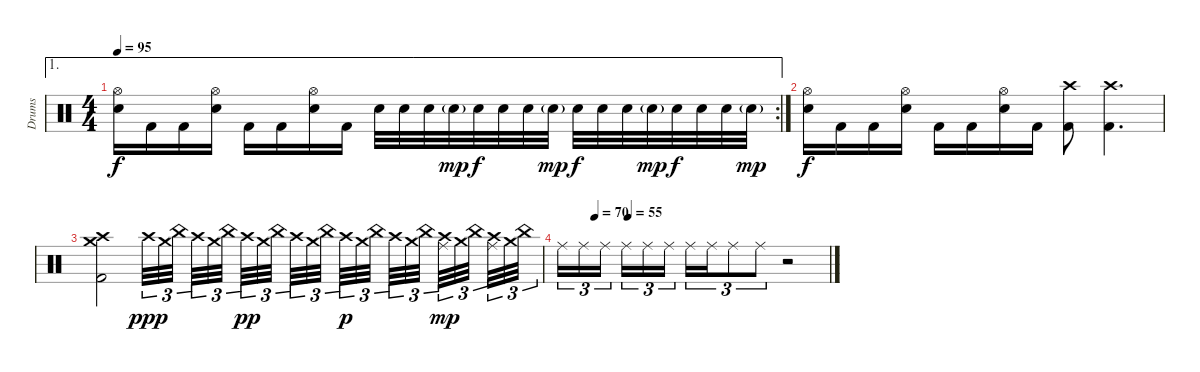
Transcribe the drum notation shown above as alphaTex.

\track ("Drums" "Drums") {instrument percussion}
\staff {score}
\articulation defaults
\ae 1
\rc 2
\ts (4 4)
\tempo 95
\clef neutral
\ks c
("Hi-Hat (open)" "Electric Snare (hit)").16{dy f} "Kick (hit) 2".16 "Kick (hit) 2".16 ("Hi-Hat (open)" "Electric Snare (hit)").16 "Kick (hit) 2".16 "Kick (hit) 2".16 ("Hi-Hat (open)" "Electric Snare (hit)").16 "Kick (hit) 2".16 "Electric Snare (hit)".32 "Electric Snare (hit)".32 "Electric Snare (hit)".32 "Electric Snare (hit)"{g}.32{dy mp} "Electric Snare (hit)".32{dy f} "Electric Snare (hit)".32 "Electric Snare (hit)".32 "Electric Snare (hit)"{g}.32{dy mp} "Electric Snare (hit)".32{dy f} "Electric Snare (hit)".32 "Electric Snare (hit)".32 "Electric Snare (hit)"{g}.32{dy mp} "Electric Snare (hit)".32{dy f} "Electric Snare (hit)".32 "Electric Snare (hit)".32 "Electric Snare (hit)"{g}.32{dy mp} |
("Hi-Hat (open)" "Electric Snare (hit)").16{dy f} "Kick (hit) 2".16 "Kick (hit) 2".16 ("Hi-Hat (open)" "Electric Snare (hit)").16 "Kick (hit) 2".16 "Kick (hit) 2".16 ("Hi-Hat (open)" "Electric Snare (hit)").16 "Kick (hit) 2".16 ("Crash high (hit)" "Kick (hit) 2").8 ("Crash high (hit)" "Kick (hit) 2").4{d} |
("Crash high (hit)" "Crash medium (hit)" "Kick (hit) 2").2 "Crash high (hit)".32{tu (3 2) dy ppp} "Crash medium (hit)".32{tu (3 2)} "China (hit)".32{tu (3 2)} "Crash high (hit)".32{tu (3 2)} "Crash medium (hit)".32{tu (3 2)} "China (hit)".32{tu (3 2)} "Crash high (hit)".32{tu (3 2) dy pp} "Crash medium (hit)".32{tu (3 2)} "China (hit)".32{tu (3 2)} "Crash high (hit)".32{tu (3 2)} "Crash medium (hit)".32{tu (3 2)} "China (hit)".32{tu (3 2)} "Crash high (hit)".32{tu (3 2) dy p} "Crash medium (hit)".32{tu (3 2)} "China (hit)".32{tu (3 2)} "Crash high (hit)".32{tu (3 2)} "Crash medium (hit)".32{tu (3 2)} "China (hit)".32{tu (3 2)} ("Ride (middle)" "Crash high (hit)").32{tu (3 2) dy mp} "Crash medium (hit)".32{tu (3 2)} "China (hit)".32{tu (3 2)} ("Ride (middle)" "Crash high (hit)").32{tu (3 2)} "Crash medium (hit)".32{tu (3 2)} "China (hit)".32{tu (3 2)} |
\tempo (70 0.125)
\tempo (55 0.25)
"Ride (middle)".16{tu (3 2)} "Ride (middle)".16{tu (3 2)} "Ride (middle)".16{tu (3 2)} "Ride (middle)".16{tu (3 2)} "Ride (middle)".16{tu (3 2)} "Ride (middle)".16{tu (3 2)} "Ride (middle)".16{tu (3 2)} "Ride (middle)".16{tu (3 2)} "Ride (middle)".8{tu (3 2)} "Ride (middle)".8{tu (3 2)} r.2
